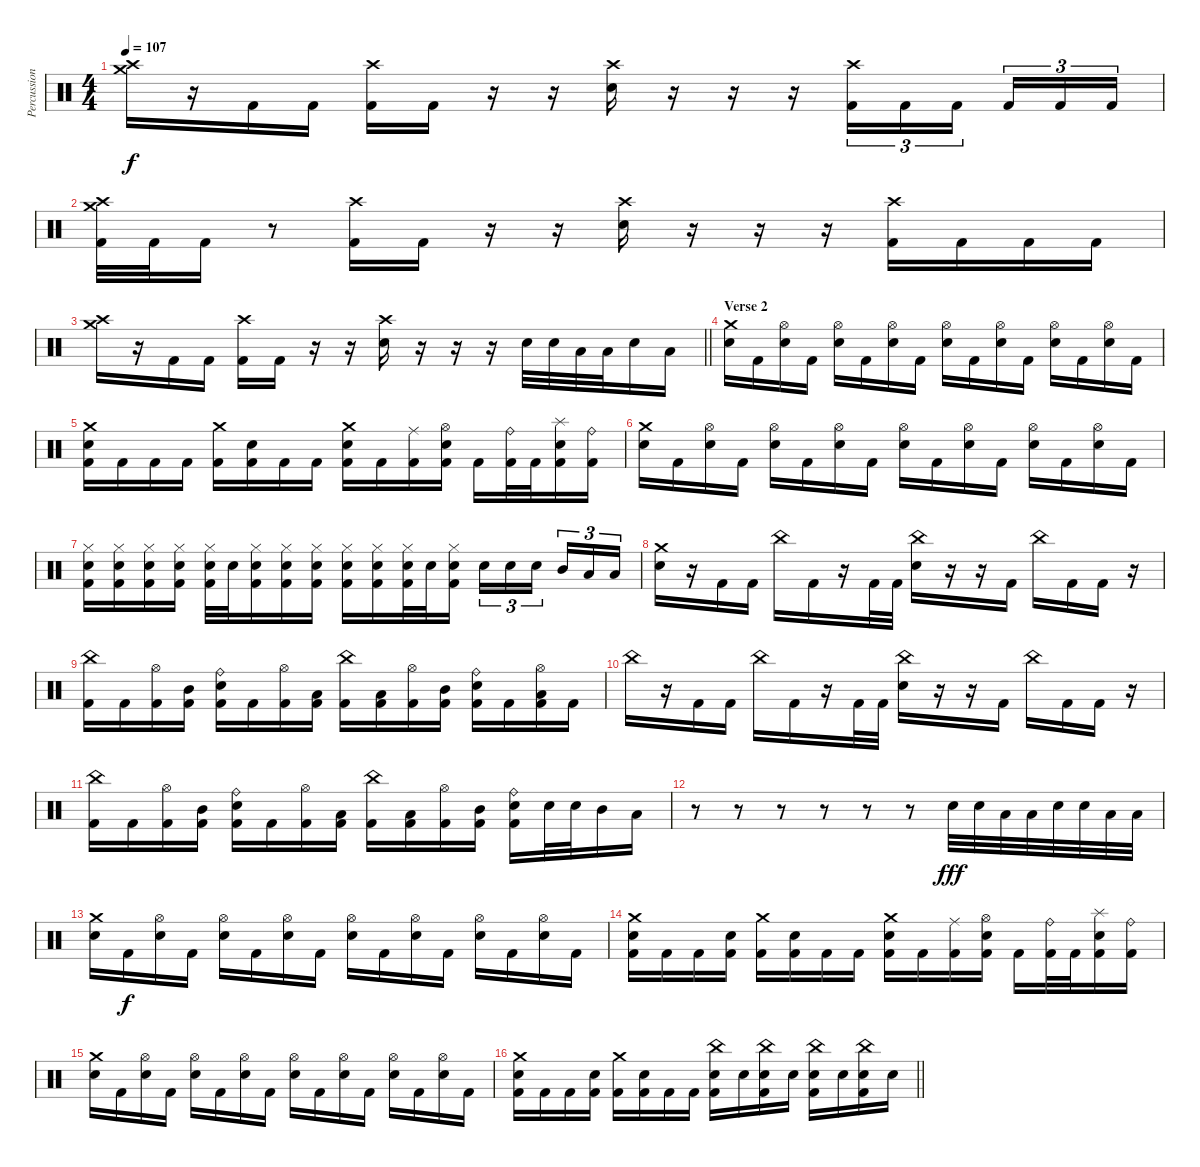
\track ("Percussion" "Percussion") {instrument percussion}
\staff {score}
\articulation defaults
\ts (4 4)
\tempo 107
\clef neutral
\ks c
("Crash high (hit)" "Crash medium (hit)").16{dy f} r.16 "Kick (hit) 2".16 "Kick (hit) 2".16 ("Crash high (hit)" "Kick (hit) 2").16 "Kick (hit) 2".16 r.16 r.16 ("Crash high (hit)" "Electric Snare (hit)").16 r.16 r.16 r.16 ("Crash high (hit)" "Kick (hit) 2").16{tu (3 2)} "Kick (hit) 2".16{tu (3 2)} "Kick (hit) 2".16{tu (3 2) beam splitsecondary} "Kick (hit) 2".16{tu (3 2)} "Kick (hit) 2".16{tu (3 2)} "Kick (hit) 2".16{tu (3 2)} |
("Crash high (hit)" "Crash medium (hit)" "Kick (hit) 2").32 "Kick (hit) 2".32 "Kick (hit) 2".16 r.8 ("Crash high (hit)" "Kick (hit) 2").16 "Kick (hit) 2".16 r.16 r.16 ("Crash high (hit)" "Electric Snare (hit)").16 r.16 r.16 r.16 ("Crash high (hit)" "Kick (hit) 2").16 "Kick (hit) 2".16 "Kick (hit) 2".16 "Kick (hit) 2".16 |
\barLineRight lightlight
("Crash high (hit)" "Crash medium (hit)").16 r.16 "Kick (hit) 2".16 "Kick (hit) 2".16 ("Crash high (hit)" "Kick (hit) 2").16 "Kick (hit) 2".16 r.16 r.16 ("Crash high (hit)" "Electric Snare (hit)").16 r.16 r.16 r.16 "Electric Snare (hit)".32 "Electric Snare (hit)".32 "Low Floor Tom (hit)".32 "Low Floor Tom (hit)".32 "Electric Snare (hit)".16 "Low Floor Tom (hit)".16 |
\section ("" "Verse 2")
("Crash medium (hit)" "Electric Snare (hit)").16 "Kick (hit) 2".16 ("Hi-Hat (open)" "Electric Snare (hit)").16 "Kick (hit) 2".16 ("Hi-Hat (open)" "Electric Snare (hit)").16 "Kick (hit) 2".16 ("Hi-Hat (open)" "Electric Snare (hit)").16 "Kick (hit) 2".16 ("Hi-Hat (open)" "Electric Snare (hit)").16 "Kick (hit) 2".16 ("Hi-Hat (open)" "Electric Snare (hit)").16 "Kick (hit) 2".16 ("Hi-Hat (open)" "Electric Snare (hit)").16 "Kick (hit) 2".16 ("Hi-Hat (open)" "Electric Snare (hit)").16 "Kick (hit) 2".16 |
("Crash medium (hit)" "Electric Snare (hit)" "Kick (hit) 2").16 "Kick (hit) 2".16 "Kick (hit) 2".16 "Kick (hit) 2".16 ("Crash medium (hit)" "Kick (hit) 2").16 ("Electric Snare (hit)" "Kick (hit) 2").16 "Kick (hit) 2".16 "Kick (hit) 2".16 ("Crash medium (hit)" "Electric Snare (hit)" "Kick (hit) 2").16 "Kick (hit) 2".16 ("Ride (middle)" "Kick (hit) 2").16 ("Hi-Hat (open)" "Electric Snare (hit)" "Kick (hit) 2").16 "Kick (hit) 2".16 ("Ride (bell)" "Kick (hit) 2").32 "Kick (hit) 2".32 ("Splash (hit)" "Electric Snare (hit)" "Kick (hit) 2").16 ("Ride (bell)" "Kick (hit) 2").16 |
("Crash medium (hit)" "Electric Snare (hit)").16 "Kick (hit) 2".16 ("Hi-Hat (open)" "Electric Snare (hit)").16 "Kick (hit) 2".16 ("Hi-Hat (open)" "Electric Snare (hit)").16 "Kick (hit) 2".16 ("Hi-Hat (open)" "Electric Snare (hit)").16 "Kick (hit) 2".16 ("Hi-Hat (open)" "Electric Snare (hit)").16 "Kick (hit) 2".16 ("Hi-Hat (open)" "Electric Snare (hit)").16 "Kick (hit) 2".16 ("Hi-Hat (open)" "Electric Snare (hit)").16 "Kick (hit) 2".16 ("Hi-Hat (open)" "Electric Snare (hit)").16 "Kick (hit) 2".16 |
("Hi-Hat (closed)" "Electric Snare (hit)" "Kick (hit) 2").16 ("Hi-Hat (closed)" "Electric Snare (hit)" "Kick (hit) 2").16 ("Hi-Hat (closed)" "Electric Snare (hit)" "Kick (hit) 2").16 ("Hi-Hat (closed)" "Electric Snare (hit)" "Kick (hit) 2").16 ("Hi-Hat (closed)" "Electric Snare (hit)" "Kick (hit) 2").32 "Electric Snare (hit)".32 ("Hi-Hat (closed)" "Electric Snare (hit)" "Kick (hit) 2").16 ("Hi-Hat (closed)" "Electric Snare (hit)" "Kick (hit) 2").16 ("Hi-Hat (closed)" "Electric Snare (hit)" "Kick (hit) 2").16 ("Hi-Hat (closed)" "Electric Snare (hit)" "Kick (hit) 2").16 ("Hi-Hat (closed)" "Electric Snare (hit)" "Kick (hit) 2").16 ("Hi-Hat (closed)" "Electric Snare (hit)" "Kick (hit) 2").32 "Electric Snare (hit)".32 ("Hi-Hat (closed)" "Electric Snare (hit)" "Kick (hit) 2").16 "Electric Snare (hit)".16{tu (3 2)} "Electric Snare (hit)".16{tu (3 2)} "Electric Snare (hit)".16{tu (3 2) beam splitsecondary} "Mid Tom (hit)".16{tu (3 2)} "Low Floor Tom (hit)".16{tu (3 2)} "Low Floor Tom (hit)".16{tu (3 2)} |
("Crash medium (hit)" "Electric Snare (hit)").16 r.16 "Kick (hit) 2".16 "Kick (hit) 2".16 "China (hit)".16 "Kick (hit) 2".16 r.16 "Kick (hit) 2".32 "Kick (hit) 2".32 ("China (hit)" "Electric Snare (hit)").16 r.16 r.16 "Kick (hit) 2".16 "China (hit)".16 "Kick (hit) 2".16 "Kick (hit) 2".16 r.16 |
("China (hit)" "Kick (hit) 2").16 "Kick (hit) 2".16 ("Hi-Hat (open)" "Kick (hit) 2").16 ("Mid Tom (hit)" "Kick (hit) 2").16 ("Ride (bell)" "Electric Snare (hit)" "Kick (hit) 2").16 "Kick (hit) 2".16 ("Hi-Hat (open)" "Kick (hit) 2").16 ("Low Floor Tom (hit)" "Kick (hit) 2").16 ("China (hit)" "Kick (hit) 2").16 ("Low Floor Tom (hit)" "Kick (hit) 2").16 ("Hi-Hat (open)" "Kick (hit) 2").16 ("Mid Tom (hit)" "Kick (hit) 2").16 ("Ride (bell)" "Electric Snare (hit)" "Kick (hit) 2").16 "Kick (hit) 2".16 ("Hi-Hat (open)" "Low Floor Tom (hit)" "Kick (hit) 2").16 "Kick (hit) 2".16 |
"China (hit)".16 r.16 "Kick (hit) 2".16 "Kick (hit) 2".16 "China (hit)".16 "Kick (hit) 2".16 r.16 "Kick (hit) 2".32 "Kick (hit) 2".32 ("China (hit)" "Electric Snare (hit)").16 r.16 r.16 "Kick (hit) 2".16 "China (hit)".16 "Kick (hit) 2".16 "Kick (hit) 2".16 r.16 |
("China (hit)" "Kick (hit) 2").16 "Kick (hit) 2".16 ("Hi-Hat (open)" "Kick (hit) 2").16 ("Mid Tom (hit)" "Kick (hit) 2").16 ("Ride (bell)" "Electric Snare (hit)" "Kick (hit) 2").16 "Kick (hit) 2".16 ("Hi-Hat (open)" "Kick (hit) 2").16 ("Low Floor Tom (hit)" "Kick (hit) 2").16 ("China (hit)" "Kick (hit) 2").16 ("Low Floor Tom (hit)" "Kick (hit) 2").16 ("Hi-Hat (open)" "Kick (hit) 2").16 ("Mid Tom (hit)" "Kick (hit) 2").16 ("Ride (bell)" "Electric Snare (hit)" "Kick (hit) 2").16 "Electric Snare (hit)".32 "Electric Snare (hit)".32 "Mid Tom (hit)".16 "Low Floor Tom (hit)".16 |
r.8 r.8 r.8 r.8 r.8 r.8 "Electric Snare (hit)".32{dy fff} "Electric Snare (hit)".32 "Low Floor Tom (hit)".32 "Low Floor Tom (hit)".32 "Electric Snare (hit)".32 "Electric Snare (hit)".32 "Low Floor Tom (hit)".32 "Low Floor Tom (hit)".32 |
("Crash medium (hit)" "Electric Snare (hit)").16 "Kick (hit) 2".16{dy f} ("Hi-Hat (open)" "Electric Snare (hit)").16 "Kick (hit) 2".16 ("Hi-Hat (open)" "Electric Snare (hit)").16 "Kick (hit) 2".16 ("Hi-Hat (open)" "Electric Snare (hit)").16 "Kick (hit) 2".16 ("Hi-Hat (open)" "Electric Snare (hit)").16 "Kick (hit) 2".16 ("Hi-Hat (open)" "Electric Snare (hit)").16 "Kick (hit) 2".16 ("Hi-Hat (open)" "Electric Snare (hit)").16 "Kick (hit) 2".16 ("Hi-Hat (open)" "Electric Snare (hit)").16 "Kick (hit) 2".16 |
("Crash medium (hit)" "Electric Snare (hit)" "Kick (hit) 2").16 "Kick (hit) 2".16 "Kick (hit) 2".16 ("Electric Snare (hit)" "Kick (hit) 2").16 ("Crash medium (hit)" "Kick (hit) 2").16 ("Electric Snare (hit)" "Kick (hit) 2").16 "Kick (hit) 2".16 "Kick (hit) 2".16 ("Crash medium (hit)" "Electric Snare (hit)" "Kick (hit) 2").16 "Kick (hit) 2".16 ("Ride (middle)" "Kick (hit) 2").16 ("Hi-Hat (open)" "Electric Snare (hit)" "Kick (hit) 2").16 "Kick (hit) 2".16 ("Ride (bell)" "Kick (hit) 2").32 "Kick (hit) 2".32 ("Splash (hit)" "Electric Snare (hit)" "Kick (hit) 2").16 ("Ride (bell)" "Kick (hit) 2").16 |
("Crash medium (hit)" "Electric Snare (hit)").16 "Kick (hit) 2".16 ("Hi-Hat (open)" "Electric Snare (hit)").16 "Kick (hit) 2".16 ("Hi-Hat (open)" "Electric Snare (hit)").16 "Kick (hit) 2".16 ("Hi-Hat (open)" "Electric Snare (hit)").16 "Kick (hit) 2".16 ("Hi-Hat (open)" "Electric Snare (hit)").16 "Kick (hit) 2".16 ("Hi-Hat (open)" "Electric Snare (hit)").16 "Kick (hit) 2".16 ("Hi-Hat (open)" "Electric Snare (hit)").16 "Kick (hit) 2".16 ("Hi-Hat (open)" "Electric Snare (hit)").16 "Kick (hit) 2".16 |
\barLineRight lightlight
("Crash medium (hit)" "Electric Snare (hit)" "Kick (hit) 2").16 "Kick (hit) 2".16 "Kick (hit) 2".16 ("Electric Snare (hit)" "Kick (hit) 2").16 ("Crash medium (hit)" "Kick (hit) 2").16 ("Electric Snare (hit)" "Kick (hit) 2").16 "Kick (hit) 2".16 "Kick (hit) 2".16 ("China (hit)" "Electric Snare (hit)" "Kick (hit) 2").16 "Electric Snare (hit)".16 ("China (hit)" "Electric Snare (hit)" "Kick (hit) 2").16 "Electric Snare (hit)".16 ("China (hit)" "Electric Snare (hit)" "Kick (hit) 2").16 "Electric Snare (hit)".16 ("China (hit)" "Electric Snare (hit)" "Kick (hit) 2").16 "Electric Snare (hit)".16
